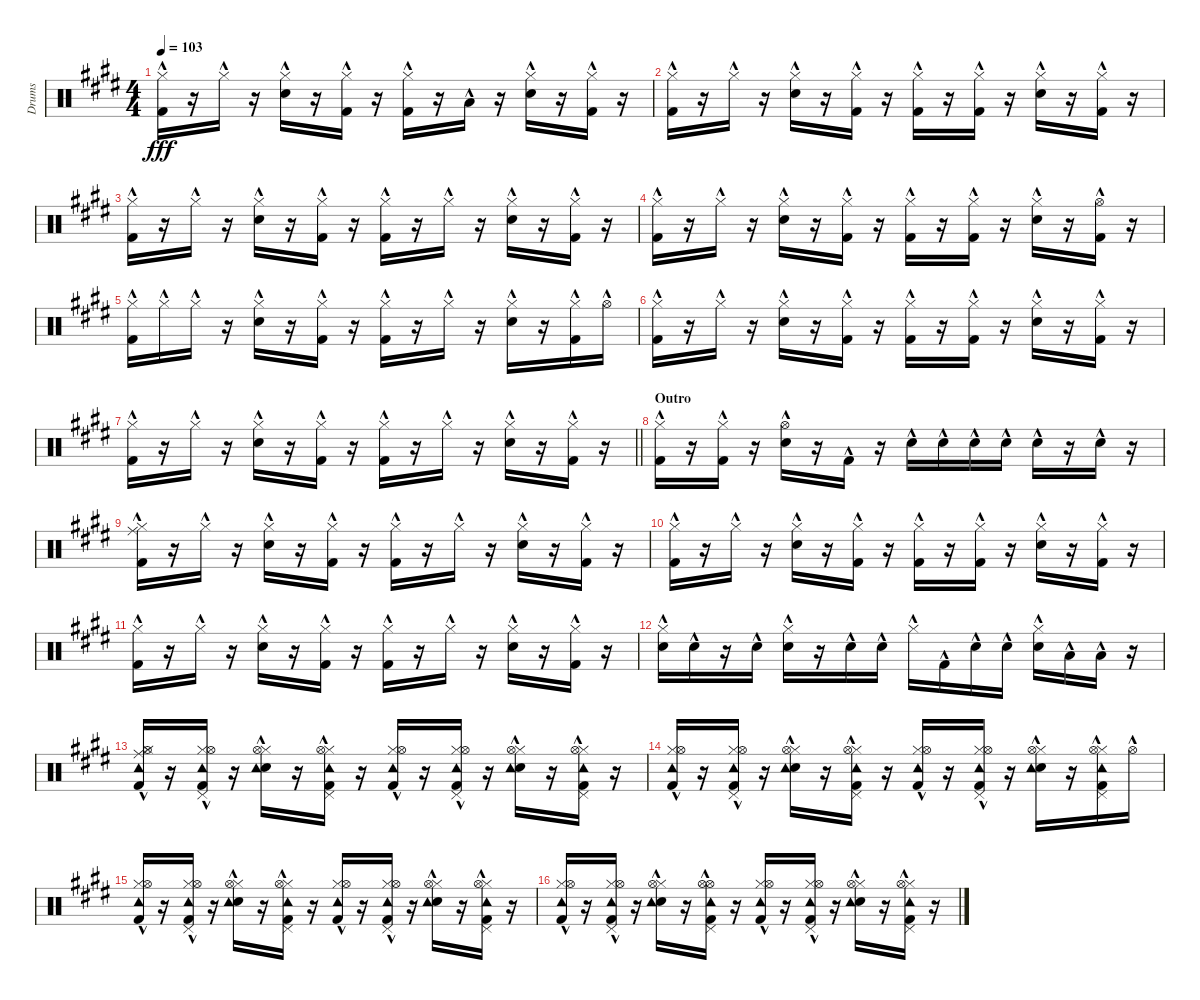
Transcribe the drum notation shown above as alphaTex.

\track ("Drums" "Drums") {instrument percussion}
\staff {score}
\articulation defaults
\ts (4 4)
\tempo 103
\clef neutral
\ks e
("Kick (hit) 2"{hac} "Hi-Hat (closed)"{hac}).16{dy fff} r.16 "Hi-Hat (closed)"{hac}.16 r.16 ("Snare (hit) 2"{hac} "Hi-Hat (closed)"{hac}).16 r.16 ("Kick (hit) 2"{hac} "Hi-Hat (closed)"{hac}).16 r.16 ("Kick (hit) 2"{hac} "Hi-Hat (closed)"{hac}).16 r.16 "Low Floor Tom (hit)"{hac}.16 r.16 ("Snare (hit) 2"{hac} "Hi-Hat (closed)"{hac}).16 r.16 ("Kick (hit) 2"{hac} "Hi-Hat (closed)"{hac}).16 r.16 |
("Kick (hit) 2"{hac} "Hi-Hat (closed)"{hac}).16 r.16 "Hi-Hat (closed)"{hac}.16 r.16 ("Snare (hit) 2"{hac} "Hi-Hat (closed)"{hac}).16 r.16 ("Kick (hit) 2"{hac} "Hi-Hat (closed)"{hac}).16 r.16 ("Kick (hit) 2"{hac} "Hi-Hat (closed)"{hac}).16 r.16 ("Kick (hit) 2"{hac} "Hi-Hat (closed)"{hac}).16 r.16 ("Snare (hit) 2"{hac} "Hi-Hat (closed)"{hac}).16 r.16 ("Kick (hit) 2"{hac} "Hi-Hat (closed)"{hac}).16 r.16 |
("Kick (hit) 2"{hac} "Hi-Hat (closed)"{hac}).16 r.16 "Hi-Hat (closed)"{hac}.16 r.16 ("Snare (hit) 2"{hac} "Hi-Hat (closed)"{hac}).16 r.16 ("Kick (hit) 2"{hac} "Hi-Hat (closed)"{hac}).16 r.16 ("Kick (hit) 2"{hac} "Hi-Hat (closed)"{hac}).16 r.16 "Hi-Hat (closed)"{hac}.16 r.16 ("Snare (hit) 2"{hac} "Hi-Hat (closed)"{hac}).16 r.16 ("Kick (hit) 2"{hac} "Hi-Hat (closed)"{hac}).16 r.16 |
("Kick (hit) 2"{hac} "Hi-Hat (closed)"{hac}).16 r.16 "Hi-Hat (closed)"{hac}.16 r.16 ("Snare (hit) 2"{hac} "Hi-Hat (closed)"{hac}).16 r.16 ("Kick (hit) 2"{hac} "Hi-Hat (closed)"{hac}).16 r.16 ("Kick (hit) 2"{hac} "Hi-Hat (closed)"{hac}).16 r.16 ("Kick (hit) 2"{hac} "Hi-Hat (closed)"{hac}).16 r.16 ("Snare (hit) 2"{hac} "Hi-Hat (closed)"{hac}).16 r.16 ("Kick (hit) 2"{hac} "Hi-Hat (open)"{hac}).16 r.16 |
("Kick (hit) 2"{hac} "Hi-Hat (closed)"{hac}).16 "Hi-Hat (closed)"{hac}.16 "Hi-Hat (closed)"{hac}.16 r.16 ("Snare (hit) 2"{hac} "Hi-Hat (closed)"{hac}).16 r.16 ("Kick (hit) 2"{hac} "Hi-Hat (closed)"{hac}).16 r.16 ("Kick (hit) 2"{hac} "Hi-Hat (closed)"{hac}).16 r.16 "Hi-Hat (closed)"{hac}.16 r.16 ("Snare (hit) 2"{hac} "Hi-Hat (closed)"{hac}).16 r.16 ("Kick (hit) 2"{hac} "Hi-Hat (closed)"{hac}).16 "Hi-Hat (open)"{hac}.16 |
("Kick (hit) 2"{hac} "Hi-Hat (closed)"{hac}).16 r.16 "Hi-Hat (closed)"{hac}.16 r.16 ("Snare (hit) 2"{hac} "Hi-Hat (closed)"{hac}).16 r.16 ("Kick (hit) 2"{hac} "Hi-Hat (closed)"{hac}).16 r.16 ("Kick (hit) 2"{hac} "Hi-Hat (closed)"{hac}).16 r.16 ("Kick (hit) 2"{hac} "Hi-Hat (closed)"{hac}).16 r.16 ("Snare (hit) 2"{hac} "Hi-Hat (closed)"{hac}).16 r.16 ("Kick (hit) 2"{hac} "Hi-Hat (closed)"{hac}).16 r.16 |
\barLineRight lightlight
("Kick (hit) 2"{hac} "Hi-Hat (closed)"{hac}).16 r.16 "Hi-Hat (closed)"{hac}.16 r.16 ("Snare (hit) 2"{hac} "Hi-Hat (closed)"{hac}).16 r.16 ("Kick (hit) 2"{hac} "Hi-Hat (closed)"{hac}).16 r.16 ("Kick (hit) 2"{hac} "Hi-Hat (closed)"{hac}).16 r.16 "Hi-Hat (closed)"{hac}.16 r.16 ("Snare (hit) 2"{hac} "Hi-Hat (closed)"{hac}).16 r.16 ("Kick (hit) 2"{hac} "Hi-Hat (closed)"{hac}).16 r.16 |
\section ("" "Outro")
("Kick (hit) 2"{hac} "Hi-Hat (closed)"{hac}).16 r.16 ("Kick (hit) 2"{hac} "Hi-Hat (closed)"{hac}).16 r.16 ("Snare (hit) 2"{hac} "Hi-Hat (open)"{hac}).16 r.16 "Kick (hit) 2"{hac}.16 r.16 "Snare (hit) 2"{hac}.16 "Snare (hit) 2"{hac}.16 "Snare (hit) 2"{hac}.16 "Snare (hit) 2"{hac}.16 "Snare (hit) 2"{hac}.16 r.16 "Snare (hit) 2"{hac}.16 r.16 |
("Kick (hit) 2"{hac} "Hi-Hat (closed)"{hac} "Ride (middle)"{hac}).16 r.16 "Hi-Hat (closed)"{hac}.16 r.16 ("Snare (hit) 2"{hac} "Hi-Hat (closed)"{hac}).16 r.16 ("Kick (hit) 2"{hac} "Hi-Hat (closed)"{hac}).16 r.16 ("Kick (hit) 2"{hac} "Hi-Hat (closed)"{hac}).16 r.16 "Hi-Hat (closed)"{hac}.16 r.16 ("Snare (hit) 2"{hac} "Hi-Hat (closed)"{hac}).16 r.16 ("Kick (hit) 2"{hac} "Hi-Hat (closed)"{hac}).16 r.16 |
("Kick (hit) 2"{hac} "Hi-Hat (closed)"{hac}).16 r.16 "Hi-Hat (closed)"{hac}.16 r.16 ("Snare (hit) 2"{hac} "Hi-Hat (closed)"{hac}).16 r.16 ("Kick (hit) 2"{hac} "Hi-Hat (closed)"{hac}).16 r.16 ("Kick (hit) 2"{hac} "Hi-Hat (closed)"{hac}).16 r.16 ("Kick (hit) 2"{hac} "Hi-Hat (closed)"{hac}).16 r.16 ("Snare (hit) 2"{hac} "Hi-Hat (closed)"{hac}).16 r.16 ("Kick (hit) 2"{hac} "Hi-Hat (closed)"{hac}).16 r.16 |
("Kick (hit) 2"{hac} "Hi-Hat (closed)"{hac}).16 r.16 "Hi-Hat (closed)"{hac}.16 r.16 ("Snare (hit) 2"{hac} "Hi-Hat (closed)"{hac}).16 r.16 ("Kick (hit) 2"{hac} "Hi-Hat (closed)"{hac}).16 r.16 ("Kick (hit) 2"{hac} "Hi-Hat (closed)"{hac}).16 r.16 "Hi-Hat (closed)"{hac}.16 r.16 ("Snare (hit) 2"{hac} "Hi-Hat (closed)"{hac}).16 r.16 ("Kick (hit) 2"{hac} "Hi-Hat (closed)"{hac}).16 r.16 |
("Snare (hit) 2"{hac} "Hi-Hat (closed)"{hac}).16 "Snare (hit) 2"{hac}.16 r.16 "Snare (hit) 2"{hac}.16 ("Snare (hit) 2"{hac} "Hi-Hat (closed)"{hac}).16 r.16 "Snare (hit) 2"{hac}.16 "Snare (hit) 2"{hac}.16 "Hi-Hat (closed)"{hac}.16 "Kick (hit) 2"{hac}.16 "Snare (hit) 2"{hac}.16 "Snare (hit) 2"{hac}.16 ("Snare (hit) 2"{hac} "Hi-Hat (closed)"{hac}).16 "Low Tom (hit)"{hac}.16 "Low Floor Tom (hit)"{hac}.16 r.16 |
("Kick (hit) 2"{hac} "Hi-Hat (closed)"{hac} "Ride (middle)"{hac} "Tambourine (hit)"{hac} "Hi-Hat (open)"{hac}).16 r.16 ("Kick (hit) 2"{hac} "Hi-Hat (closed)"{hac} "Tambourine (hit)"{hac} "Hi-Hat (open)"{hac} "Pedal Hi-Hat (hit)"{hac}).16 r.16 ("Snare (hit) 2"{hac} "Hi-Hat (closed)"{hac} "Tambourine (hit)"{hac} "Hi-Hat (open)"{hac}).16 r.16 ("Kick (hit) 2"{hac} "Hi-Hat (closed)"{hac} "Tambourine (hit)"{hac} "Hi-Hat (open)"{hac} "Pedal Hi-Hat (hit)"{hac}).16 r.16 ("Kick (hit) 2"{hac} "Hi-Hat (closed)"{hac} "Tambourine (hit)"{hac} "Hi-Hat (open)"{hac}).16 r.16 ("Kick (hit) 2"{hac} "Hi-Hat (closed)"{hac} "Tambourine (hit)"{hac} "Hi-Hat (open)"{hac} "Pedal Hi-Hat (hit)"{hac}).16 r.16 ("Snare (hit) 2"{hac} "Hi-Hat (closed)"{hac} "Tambourine (hit)"{hac} "Hi-Hat (open)"{hac}).16 r.16 ("Kick (hit) 2"{hac} "Hi-Hat (closed)"{hac} "Tambourine (hit)"{hac} "Hi-Hat (open)"{hac} "Pedal Hi-Hat (hit)"{hac}).16 r.16 |
("Kick (hit) 2"{hac} "Hi-Hat (closed)"{hac} "Tambourine (hit)"{hac} "Hi-Hat (open)"{hac}).16 r.16 ("Kick (hit) 2"{hac} "Hi-Hat (closed)"{hac} "Tambourine (hit)"{hac} "Hi-Hat (open)"{hac} "Pedal Hi-Hat (hit)"{hac}).16 r.16 ("Snare (hit) 2"{hac} "Hi-Hat (closed)"{hac} "Tambourine (hit)"{hac} "Hi-Hat (open)"{hac}).16 r.16 ("Kick (hit) 2"{hac} "Hi-Hat (closed)"{hac} "Tambourine (hit)"{hac} "Hi-Hat (open)"{hac} "Pedal Hi-Hat (hit)"{hac}).16 r.16 ("Kick (hit) 2"{hac} "Hi-Hat (closed)"{hac} "Tambourine (hit)"{hac} "Hi-Hat (open)"{hac}).16 r.16 ("Kick (hit) 2"{hac} "Hi-Hat (closed)"{hac} "Tambourine (hit)"{hac} "Hi-Hat (open)"{hac} "Pedal Hi-Hat (hit)"{hac}).16 r.16 ("Snare (hit) 2"{hac} "Hi-Hat (closed)"{hac} "Tambourine (hit)"{hac} "Hi-Hat (open)"{hac}).16 r.16 ("Kick (hit) 2"{hac} "Hi-Hat (closed)"{hac} "Tambourine (hit)"{hac} "Hi-Hat (open)"{hac} "Pedal Hi-Hat (hit)"{hac}).16 "Hi-Hat (open)"{hac}.16 |
("Kick (hit) 2"{hac} "Hi-Hat (closed)"{hac} "Tambourine (hit)"{hac} "Hi-Hat (open)"{hac}).16 r.16 ("Kick (hit) 2"{hac} "Hi-Hat (closed)"{hac} "Tambourine (hit)"{hac} "Hi-Hat (open)"{hac} "Pedal Hi-Hat (hit)"{hac}).16 r.16 ("Snare (hit) 2"{hac} "Hi-Hat (closed)"{hac} "Tambourine (hit)"{hac} "Hi-Hat (open)"{hac}).16 r.16 ("Kick (hit) 2"{hac} "Hi-Hat (closed)"{hac} "Tambourine (hit)"{hac} "Hi-Hat (open)"{hac} "Pedal Hi-Hat (hit)"{hac}).16 r.16 ("Kick (hit) 2"{hac} "Hi-Hat (closed)"{hac} "Tambourine (hit)"{hac} "Hi-Hat (open)"{hac}).16 r.16 ("Kick (hit) 2"{hac} "Hi-Hat (closed)"{hac} "Tambourine (hit)"{hac} "Hi-Hat (open)"{hac} "Pedal Hi-Hat (hit)"{hac}).16 r.16 ("Snare (hit) 2"{hac} "Hi-Hat (closed)"{hac} "Tambourine (hit)"{hac} "Hi-Hat (open)"{hac}).16 r.16 ("Kick (hit) 2"{hac} "Hi-Hat (closed)"{hac} "Tambourine (hit)"{hac} "Hi-Hat (open)"{hac} "Pedal Hi-Hat (hit)"{hac}).16 r.16 |
("Kick (hit) 2"{hac} "Hi-Hat (closed)"{hac} "Tambourine (hit)"{hac} "Hi-Hat (open)"{hac}).16 r.16 ("Kick (hit) 2"{hac} "Hi-Hat (closed)"{hac} "Tambourine (hit)"{hac} "Hi-Hat (open)"{hac} "Pedal Hi-Hat (hit)"{hac}).16 r.16 ("Snare (hit) 2"{hac} "Hi-Hat (closed)"{hac} "Tambourine (hit)"{hac} "Hi-Hat (open)"{hac}).16 r.16 ("Kick (hit) 2"{hac} "Hi-Hat (open)"{hac} "Tambourine (hit)"{hac} "Hi-Hat (open)"{hac} "Pedal Hi-Hat (hit)"{hac}).16 r.16 ("Kick (hit) 2"{hac} "Hi-Hat (closed)"{hac} "Tambourine (hit)"{hac} "Hi-Hat (open)"{hac}).16 r.16 ("Kick (hit) 2"{hac} "Hi-Hat (closed)"{hac} "Tambourine (hit)"{hac} "Hi-Hat (open)"{hac} "Pedal Hi-Hat (hit)"{hac}).16 r.16 ("Snare (hit) 2"{hac} "Hi-Hat (closed)"{hac} "Tambourine (hit)"{hac} "Hi-Hat (open)"{hac}).16 r.16 ("Kick (hit) 2"{hac} "Hi-Hat (closed)"{hac} "Tambourine (hit)"{hac} "Hi-Hat (open)"{hac} "Pedal Hi-Hat (hit)"{hac}).16 r.16
